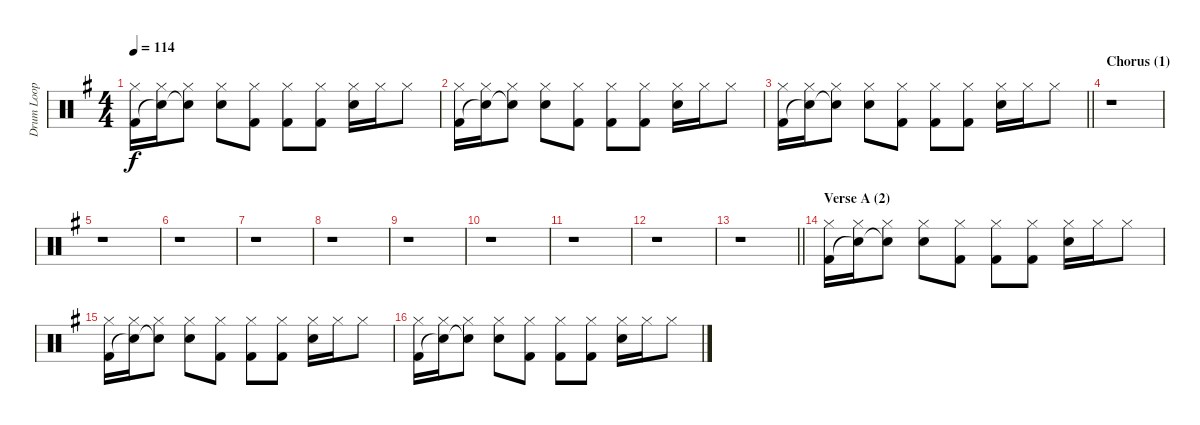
\track ("Drum Loop" "Drum Loop") {instrument percussion}
\staff {score}
\articulation defaults
\ts (4 4)
\tempo 114
\clef neutral
\ks eminor
("Hi-Hat (closed)" "Kick (hit) 2").16{dy f} ("Hi-Hat (closed)" "Snare (hit)"{t}).16 ("Hi-Hat (closed)" "Snare (hit)"{t}).8 ("Hi-Hat (closed)" "Electric Snare (hit)").8 ("Hi-Hat (closed)" "Kick (hit) 2").8 ("Hi-Hat (closed)" "Kick (hit) 2").8 ("Hi-Hat (closed)" "Kick (hit) 2").8 ("Hi-Hat (closed)" "Electric Snare (hit)").16 "Hi-Hat (closed)".16 "Hi-Hat (closed)".8 |
("Hi-Hat (closed)" "Kick (hit) 2").16 ("Hi-Hat (closed)" "Snare (hit)"{t}).16 ("Hi-Hat (closed)" "Snare (hit)"{t}).8 ("Hi-Hat (closed)" "Electric Snare (hit)").8 ("Hi-Hat (closed)" "Kick (hit) 2").8 ("Hi-Hat (closed)" "Kick (hit) 2").8 ("Hi-Hat (closed)" "Kick (hit) 2").8 ("Hi-Hat (closed)" "Electric Snare (hit)").16 "Hi-Hat (closed)".16 "Hi-Hat (closed)".8 |
\barLineRight lightlight
("Hi-Hat (closed)" "Kick (hit) 2").16 ("Hi-Hat (closed)" "Snare (hit)"{t}).16 ("Hi-Hat (closed)" "Snare (hit)"{t}).8 ("Hi-Hat (closed)" "Electric Snare (hit)").8 ("Hi-Hat (closed)" "Kick (hit) 2").8 ("Hi-Hat (closed)" "Kick (hit) 2").8 ("Hi-Hat (closed)" "Kick (hit) 2").8 ("Hi-Hat (closed)" "Electric Snare (hit)").16 "Hi-Hat (closed)".16 "Hi-Hat (closed)".8 |
\section ("" "Chorus (1)")
r.1 |
r.1 |
r.1 |
r.1 |
r.1 |
r.1 |
r.1 |
r.1 |
r.1 |
\barLineRight lightlight
r.1 |
\section ("" "Verse A (2)")
("Hi-Hat (closed)" "Kick (hit) 2").16 ("Hi-Hat (closed)" "Snare (hit)"{t}).16 ("Hi-Hat (closed)" "Snare (hit)"{t}).8 ("Hi-Hat (closed)" "Electric Snare (hit)").8 ("Hi-Hat (closed)" "Kick (hit) 2").8 ("Hi-Hat (closed)" "Kick (hit) 2").8 ("Hi-Hat (closed)" "Kick (hit) 2").8 ("Hi-Hat (closed)" "Electric Snare (hit)").16 "Hi-Hat (closed)".16 "Hi-Hat (closed)".8 |
("Hi-Hat (closed)" "Kick (hit) 2").16 ("Hi-Hat (closed)" "Snare (hit)"{t}).16 ("Hi-Hat (closed)" "Snare (hit)"{t}).8 ("Hi-Hat (closed)" "Electric Snare (hit)").8 ("Hi-Hat (closed)" "Kick (hit) 2").8 ("Hi-Hat (closed)" "Kick (hit) 2").8 ("Hi-Hat (closed)" "Kick (hit) 2").8 ("Hi-Hat (closed)" "Electric Snare (hit)").16 "Hi-Hat (closed)".16 "Hi-Hat (closed)".8 |
("Hi-Hat (closed)" "Kick (hit) 2").16 ("Hi-Hat (closed)" "Snare (hit)"{t}).16 ("Hi-Hat (closed)" "Snare (hit)"{t}).8 ("Hi-Hat (closed)" "Electric Snare (hit)").8 ("Hi-Hat (closed)" "Kick (hit) 2").8 ("Hi-Hat (closed)" "Kick (hit) 2").8 ("Hi-Hat (closed)" "Kick (hit) 2").8 ("Hi-Hat (closed)" "Electric Snare (hit)").16 "Hi-Hat (closed)".16 "Hi-Hat (closed)".8
